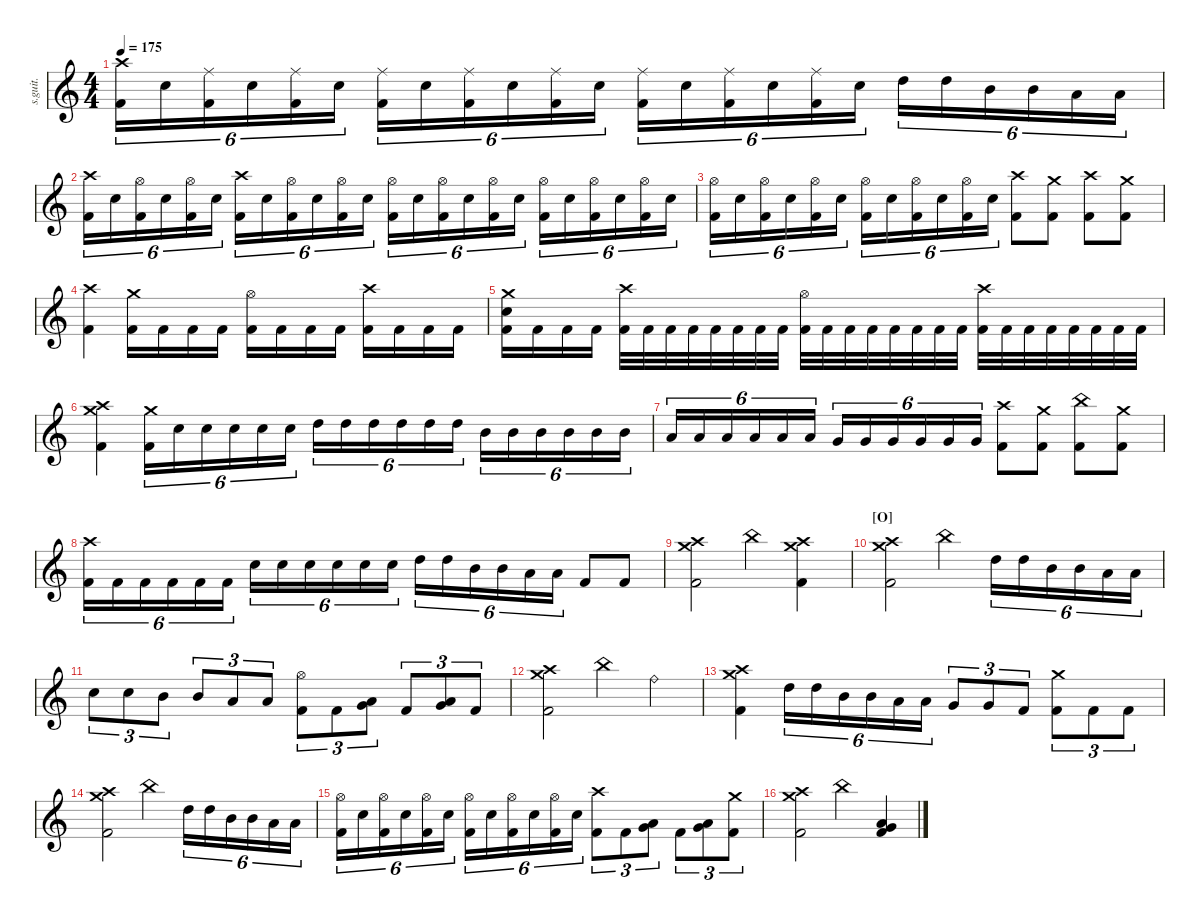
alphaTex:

\defaultSystemsLayout 4
\hideDynamics
\bracketExtendMode nobrackets
\track ("" "s.guit.") {instrument percussion}
\staff {score}
\articulation defaults
\ts (4 4)
\tempo 175
\clef g2
\ks c
("Crash high (hit)" "Kick (hit) 2").16{tu (6 4) dy ff} "Snare (hit) 2".16{tu (6 4)} ("Ride (middle)" "Kick (hit) 2").16{tu (6 4)} "Snare (hit) 2".16{tu (6 4)} ("Ride (middle)" "Kick (hit) 2").16{tu (6 4)} "Snare (hit) 2".16{tu (6 4)} ("Ride (middle)" "Kick (hit) 2").16{tu (6 4)} "Snare (hit) 2".16{tu (6 4)} ("Ride (middle)" "Kick (hit) 2").16{tu (6 4)} "Snare (hit) 2".16{tu (6 4)} ("Ride (middle)" "Kick (hit) 2").16{tu (6 4)} "Snare (hit) 2".16{tu (6 4)} ("Ride (middle)" "Kick (hit) 2").16{tu (6 4)} "Snare (hit) 2".16{tu (6 4)} ("Ride (middle)" "Kick (hit) 2").16{tu (6 4)} "Snare (hit) 2".16{tu (6 4)} ("Ride (middle)" "Kick (hit) 2").16{tu (6 4)} "Snare (hit) 2".16{tu (6 4)} "High Tom (hit)".16{tu (6 4)} "High Tom (hit)".16{tu (6 4)} "Mid Tom (hit)".16{tu (6 4)} "Mid Tom (hit)".16{tu (6 4)} "Low Tom (hit)".16{tu (6 4)} "Low Tom (hit)".16{tu (6 4)} |
("Crash high (hit)" "Kick (hit) 2").16{tu (6 4)} "Snare (hit) 2".16{tu (6 4)} ("Hi-Hat (open)" "Kick (hit) 2").16{tu (6 4)} "Snare (hit) 2".16{tu (6 4)} ("Hi-Hat (open)" "Kick (hit) 2").16{tu (6 4)} "Snare (hit) 2".16{tu (6 4)} ("Crash high (hit)" "Kick (hit) 2").16{tu (6 4)} "Snare (hit) 2".16{tu (6 4)} ("Hi-Hat (open)" "Kick (hit) 2").16{tu (6 4)} "Snare (hit) 2".16{tu (6 4)} ("Hi-Hat (open)" "Kick (hit) 2").16{tu (6 4)} "Snare (hit) 2".16{tu (6 4)} ("Hi-Hat (open)" "Kick (hit) 2").16{tu (6 4)} "Snare (hit) 2".16{tu (6 4)} ("Hi-Hat (open)" "Kick (hit) 2").16{tu (6 4)} "Snare (hit) 2".16{tu (6 4)} ("Hi-Hat (open)" "Kick (hit) 2").16{tu (6 4)} "Snare (hit) 2".16{tu (6 4)} ("Hi-Hat (open)" "Kick (hit) 2").16{tu (6 4)} "Snare (hit) 2".16{tu (6 4)} ("Hi-Hat (open)" "Kick (hit) 2").16{tu (6 4)} "Snare (hit) 2".16{tu (6 4)} ("Hi-Hat (open)" "Kick (hit) 2").16{tu (6 4)} "Snare (hit) 2".16{tu (6 4)} |
("Hi-Hat (open)" "Kick (hit) 2").16{tu (6 4)} "Snare (hit) 2".16{tu (6 4)} ("Hi-Hat (open)" "Kick (hit) 2").16{tu (6 4)} "Snare (hit) 2".16{tu (6 4)} ("Hi-Hat (open)" "Kick (hit) 2").16{tu (6 4)} "Snare (hit) 2".16{tu (6 4)} ("Hi-Hat (open)" "Kick (hit) 2").16{tu (6 4)} "Snare (hit) 2".16{tu (6 4)} ("Hi-Hat (open)" "Kick (hit) 2").16{tu (6 4)} "Snare (hit) 2".16{tu (6 4)} ("Hi-Hat (open)" "Kick (hit) 2").16{tu (6 4)} "Snare (hit) 2".16{tu (6 4)} ("Crash high (hit)" "Kick (hit) 2").8 ("Crash medium (hit)" "Kick (hit) 2").8 ("Crash high (hit)" "Kick (hit) 2").8 ("Crash medium (hit)" "Kick (hit) 2").8 |
("Crash high (hit)" "Kick (hit) 2").4 ("Crash medium (hit)" "Kick (hit) 2").16 "Kick (hit) 2".16 "Kick (hit) 2".16 "Kick (hit) 2".16 ("Hi-Hat (open)" "Kick (hit) 2").16 "Kick (hit) 2".16 "Kick (hit) 2".16 "Kick (hit) 2".16 ("Crash high (hit)" "Kick (hit) 2").16 "Kick (hit) 2".16 "Kick (hit) 2".16 "Kick (hit) 2".16 |
("Crash medium (hit)" "Snare (hit) 2" "Kick (hit) 2").16 "Kick (hit) 2".16 "Kick (hit) 2".16 "Kick (hit) 2".16 ("Crash high (hit)" "Kick (hit) 2").32 "Kick (hit) 2".32 "Kick (hit) 2".32 "Kick (hit) 2".32 "Kick (hit) 2".32 "Kick (hit) 2".32 "Kick (hit) 2".32 "Kick (hit) 2".32 ("Hi-Hat (open)" "Kick (hit) 2").32 "Kick (hit) 2".32 "Kick (hit) 2".32 "Kick (hit) 2".32 "Kick (hit) 2".32 "Kick (hit) 2".32 "Kick (hit) 2".32 "Kick (hit) 2".32 ("Crash high (hit)" "Kick (hit) 2").32 "Kick (hit) 2".32 "Kick (hit) 2".32 "Kick (hit) 2".32 "Kick (hit) 2".32 "Kick (hit) 2".32 "Kick (hit) 2".32 "Kick (hit) 2".32 |
("Crash medium (hit)" "Crash high (hit)" "Kick (hit) 2").4 ("Crash medium (hit)" "Kick (hit) 2").16{tu (6 4)} "Snare (hit) 2".16{tu (6 4)} "Snare (hit) 2".16{tu (6 4)} "Snare (hit) 2".16{tu (6 4)} "Snare (hit) 2".16{tu (6 4)} "Snare (hit) 2".16{tu (6 4)} "High Tom (hit)".16{tu (6 4)} "High Tom (hit)".16{tu (6 4)} "High Tom (hit)".16{tu (6 4)} "High Tom (hit)".16{tu (6 4)} "High Tom (hit)".16{tu (6 4)} "High Tom (hit)".16{tu (6 4)} "Mid Tom (hit)".16{tu (6 4)} "Mid Tom (hit)".16{tu (6 4)} "Mid Tom (hit)".16{tu (6 4)} "Mid Tom (hit)".16{tu (6 4)} "Mid Tom (hit)".16{tu (6 4)} "Mid Tom (hit)".16{tu (6 4)} |
"Low Tom (hit)".16{tu (6 4)} "Low Tom (hit)".16{tu (6 4)} "Low Tom (hit)".16{tu (6 4)} "Low Tom (hit)".16{tu (6 4)} "Low Tom (hit)".16{tu (6 4)} "Low Tom (hit)".16{tu (6 4)} "Very Low Tom (hit)".16{tu (6 4)} "Very Low Tom (hit)".16{tu (6 4)} "Very Low Tom (hit)".16{tu (6 4)} "Very Low Tom (hit)".16{tu (6 4)} "Very Low Tom (hit)".16{tu (6 4)} "Very Low Tom (hit)".16{tu (6 4)} ("Crash high (hit)" "Kick (hit) 2").8 ("Crash medium (hit)" "Kick (hit) 2").8 ("China (hit)" "Kick (hit) 2").8 ("Crash medium (hit)" "Kick (hit) 2").8 |
("Crash high (hit)" "Kick (hit) 2").16{tu (6 4)} "Kick (hit) 2".16{tu (6 4)} "Kick (hit) 2".16{tu (6 4)} "Kick (hit) 2".16{tu (6 4)} "Kick (hit) 2".16{tu (6 4)} "Kick (hit) 2".16{tu (6 4)} "Snare (hit) 2".16{tu (6 4)} "Snare (hit) 2".16{tu (6 4)} "Snare (hit) 2".16{tu (6 4)} "Snare (hit) 2".16{tu (6 4)} "Snare (hit) 2".16{tu (6 4)} "Snare (hit) 2".16{tu (6 4)} "High Tom (hit)".16{tu (6 4)} "High Tom (hit)".16{tu (6 4)} "Mid Tom (hit)".16{tu (6 4)} "Mid Tom (hit)".16{tu (6 4)} "Low Tom (hit)".16{tu (6 4)} "Low Tom (hit)".16{tu (6 4)} "Kick (hit) 2".8 "Kick (hit) 2".8 |
("Crash medium (hit)" "Crash high (hit)" "Kick (hit) 2").2 "China (hit)".4 ("Crash medium (hit)" "Crash high (hit)" "Kick (hit) 2").4 |
\section ("O" "")
("Crash medium (hit)" "Crash high (hit)" "Kick (hit) 2").2 "China (hit)".4 "High Tom (hit)".16{tu (6 4)} "High Tom (hit)".16{tu (6 4)} "Mid Tom (hit)".16{tu (6 4)} "Mid Tom (hit)".16{tu (6 4)} "Low Tom (hit)".16{tu (6 4)} "Low Tom (hit)".16{tu (6 4)} |
"Snare (hit) 2".8{tu (3 2)} "Snare (hit) 2".8{tu (3 2)} "Mid Tom (hit)".8{tu (3 2)} "Mid Tom (hit)".8{tu (3 2)} "Low Tom (hit)".8{tu (3 2)} "Low Tom (hit)".8{tu (3 2)} ("Hi-Hat (open)" "Kick (hit) 2").8{tu (3 2)} "Kick (hit) 2".8{tu (3 2)} ("Low Tom (hit)" "Very Low Tom (hit)").8{tu (3 2)} "Kick (hit) 2".8{tu (3 2)} ("Low Tom (hit)" "Very Low Tom (hit)").8{tu (3 2)} "Kick (hit) 2".8{tu (3 2)} |
("Crash medium (hit)" "Crash high (hit)" "Kick (hit) 2").2 "China (hit)".4 "Ride (bell)".4 |
("Crash medium (hit)" "Crash high (hit)" "Kick (hit) 2").4 "High Tom (hit)".16{tu (6 4)} "High Tom (hit)".16{tu (6 4)} "Mid Tom (hit)".16{tu (6 4)} "Mid Tom (hit)".16{tu (6 4)} "Low Tom (hit)".16{tu (6 4)} "Low Tom (hit)".16{tu (6 4)} "Very Low Tom (hit)".8{tu (3 2)} "Very Low Tom (hit)".8{tu (3 2)} "Kick (hit) 2".8{tu (3 2)} ("Crash medium (hit)" "Kick (hit) 2").8{tu (3 2)} "Kick (hit) 2".8{tu (3 2)} "Kick (hit) 2".8{tu (3 2)} |
("Crash medium (hit)" "Crash high (hit)" "Kick (hit) 2").2 "China (hit)".4 "High Tom (hit)".16{tu (6 4)} "High Tom (hit)".16{tu (6 4)} "Mid Tom (hit)".16{tu (6 4)} "Mid Tom (hit)".16{tu (6 4)} "Low Tom (hit)".16{tu (6 4)} "Low Tom (hit)".16{tu (6 4)} |
("Hi-Hat (open)" "Kick (hit) 2").16{tu (6 4)} "Snare (hit) 2".16{tu (6 4)} ("Hi-Hat (open)" "Kick (hit) 2").16{tu (6 4)} "Snare (hit) 2".16{tu (6 4)} ("Hi-Hat (open)" "Kick (hit) 2").16{tu (6 4)} "Snare (hit) 2".16{tu (6 4)} ("Hi-Hat (open)" "Kick (hit) 2").16{tu (6 4)} "Snare (hit) 2".16{tu (6 4)} ("Hi-Hat (open)" "Kick (hit) 2").16{tu (6 4)} "Snare (hit) 2".16{tu (6 4)} ("Hi-Hat (open)" "Kick (hit) 2").16{tu (6 4)} "Snare (hit) 2".16{tu (6 4)} ("Crash high (hit)" "Kick (hit) 2").8{tu (3 2)} "Kick (hit) 2".8{tu (3 2)} ("Low Tom (hit)" "Very Low Tom (hit)").8{tu (3 2)} "Kick (hit) 2".8{tu (3 2)} ("Low Tom (hit)" "Very Low Tom (hit)").8{tu (3 2)} ("Crash medium (hit)" "Kick (hit) 2").8{tu (3 2)} |
("Crash medium (hit)" "Crash high (hit)" "Kick (hit) 2").2 "China (hit)".4 ("Low Tom (hit)" "Very Low Tom (hit)" "Kick (hit) 2").4
